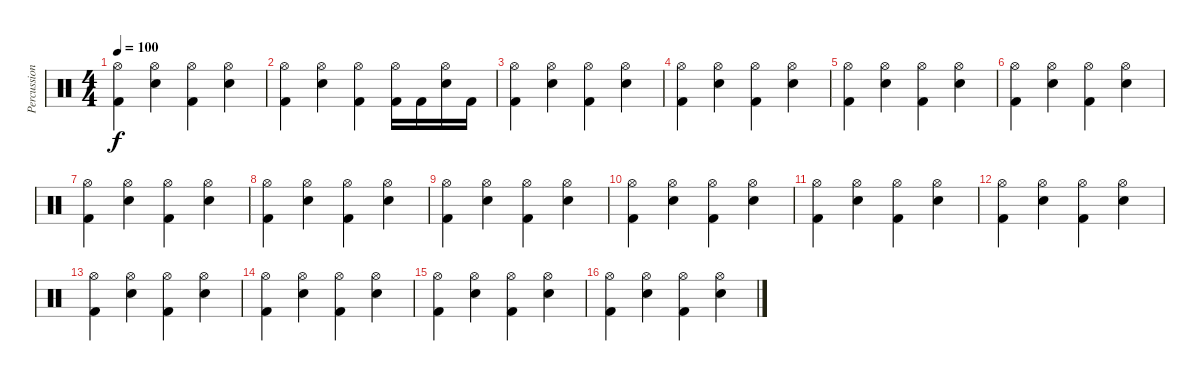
\track ("Percussion" "Percussion") {instrument percussion}
\staff {score}
\articulation defaults
\ts (4 4)
\tempo 100
\clef neutral
\ks c
("Hi-Hat (open)" "Kick (hit) 2").4{dy f} ("Hi-Hat (open)" "Electric Snare (hit)").4 ("Hi-Hat (open)" "Kick (hit) 2").4 ("Hi-Hat (open)" "Electric Snare (hit)").4 |
("Hi-Hat (open)" "Kick (hit) 2").4 ("Hi-Hat (open)" "Electric Snare (hit)").4 ("Hi-Hat (open)" "Kick (hit) 2").4 ("Hi-Hat (open)" "Kick (hit) 2").16 "Kick (hit) 2".16 ("Hi-Hat (open)" "Electric Snare (hit)").16 "Kick (hit) 2".16 |
("Hi-Hat (open)" "Kick (hit) 2").4 ("Hi-Hat (open)" "Electric Snare (hit)").4 ("Hi-Hat (open)" "Kick (hit) 2").4 ("Hi-Hat (open)" "Electric Snare (hit)").4 |
("Hi-Hat (open)" "Kick (hit) 2").4 ("Hi-Hat (open)" "Electric Snare (hit)").4 ("Hi-Hat (open)" "Kick (hit) 2").4 ("Hi-Hat (open)" "Electric Snare (hit)").4 |
("Hi-Hat (open)" "Kick (hit) 2").4 ("Hi-Hat (open)" "Electric Snare (hit)").4 ("Hi-Hat (open)" "Kick (hit) 2").4 ("Hi-Hat (open)" "Electric Snare (hit)").4 |
("Hi-Hat (open)" "Kick (hit) 2").4 ("Hi-Hat (open)" "Electric Snare (hit)").4 ("Hi-Hat (open)" "Kick (hit) 2").4 ("Hi-Hat (open)" "Electric Snare (hit)").4 |
("Hi-Hat (open)" "Kick (hit) 2").4 ("Hi-Hat (open)" "Electric Snare (hit)").4 ("Hi-Hat (open)" "Kick (hit) 2").4 ("Hi-Hat (open)" "Electric Snare (hit)").4 |
("Hi-Hat (open)" "Kick (hit) 2").4 ("Hi-Hat (open)" "Electric Snare (hit)").4 ("Hi-Hat (open)" "Kick (hit) 2").4 ("Hi-Hat (open)" "Electric Snare (hit)").4 |
("Hi-Hat (open)" "Kick (hit) 2").4 ("Hi-Hat (open)" "Electric Snare (hit)").4 ("Hi-Hat (open)" "Kick (hit) 2").4 ("Hi-Hat (open)" "Electric Snare (hit)").4 |
("Hi-Hat (open)" "Kick (hit) 2").4 ("Hi-Hat (open)" "Electric Snare (hit)").4 ("Hi-Hat (open)" "Kick (hit) 2").4 ("Hi-Hat (open)" "Electric Snare (hit)").4 |
("Hi-Hat (open)" "Kick (hit) 2").4 ("Hi-Hat (open)" "Electric Snare (hit)").4 ("Hi-Hat (open)" "Kick (hit) 2").4 ("Hi-Hat (open)" "Electric Snare (hit)").4 |
("Hi-Hat (open)" "Kick (hit) 2").4 ("Hi-Hat (open)" "Electric Snare (hit)").4 ("Hi-Hat (open)" "Kick (hit) 2").4 ("Hi-Hat (open)" "Electric Snare (hit)").4 |
("Hi-Hat (open)" "Kick (hit) 2").4 ("Hi-Hat (open)" "Electric Snare (hit)").4 ("Hi-Hat (open)" "Kick (hit) 2").4 ("Hi-Hat (open)" "Electric Snare (hit)").4 |
("Hi-Hat (open)" "Kick (hit) 2").4 ("Hi-Hat (open)" "Electric Snare (hit)").4 ("Hi-Hat (open)" "Kick (hit) 2").4 ("Hi-Hat (open)" "Electric Snare (hit)").4 |
("Hi-Hat (open)" "Kick (hit) 2").4 ("Hi-Hat (open)" "Electric Snare (hit)").4 ("Hi-Hat (open)" "Kick (hit) 2").4 ("Hi-Hat (open)" "Electric Snare (hit)").4 |
("Hi-Hat (open)" "Kick (hit) 2").4 ("Hi-Hat (open)" "Electric Snare (hit)").4 ("Hi-Hat (open)" "Kick (hit) 2").4 ("Hi-Hat (open)" "Electric Snare (hit)").4
